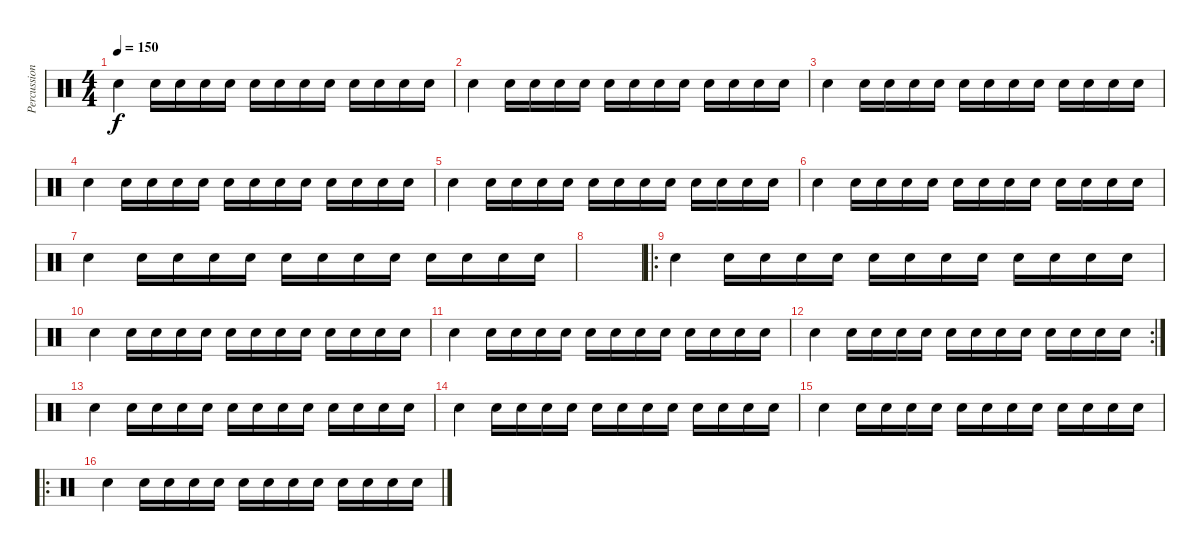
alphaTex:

\track ("Percussion" "Percussion") {instrument percussion}
\staff {score}
\articulation defaults
\ts (4 4)
\tempo 150
\clef neutral
\ks c "Snare (hit) 2".4{dy f} "Snare (hit) 2".16 "Snare (hit) 2".16 "Snare (hit) 2".16 "Snare (hit) 2".16 "Snare (hit) 2".16 "Snare (hit) 2".16 "Snare (hit) 2".16 "Snare (hit) 2".16 "Snare (hit) 2".16 "Snare (hit) 2".16 "Snare (hit) 2".16 "Snare (hit) 2".16
|
"Snare (hit) 2".4 "Snare (hit) 2".16 "Snare (hit) 2".16 "Snare (hit) 2".16 "Snare (hit) 2".16 "Snare (hit) 2".16 "Snare (hit) 2".16 "Snare (hit) 2".16 "Snare (hit) 2".16 "Snare (hit) 2".16 "Snare (hit) 2".16 "Snare (hit) 2".16 "Snare (hit) 2".16 |
"Snare (hit) 2".4 "Snare (hit) 2".16 "Snare (hit) 2".16 "Snare (hit) 2".16 "Snare (hit) 2".16 "Snare (hit) 2".16 "Snare (hit) 2".16 "Snare (hit) 2".16 "Snare (hit) 2".16 "Snare (hit) 2".16 "Snare (hit) 2".16 "Snare (hit) 2".16 "Snare (hit) 2".16 |
"Snare (hit) 2".4 "Snare (hit) 2".16 "Snare (hit) 2".16 "Snare (hit) 2".16 "Snare (hit) 2".16 "Snare (hit) 2".16 "Snare (hit) 2".16 "Snare (hit) 2".16 "Snare (hit) 2".16 "Snare (hit) 2".16 "Snare (hit) 2".16 "Snare (hit) 2".16 "Snare (hit) 2".16 |
"Snare (hit) 2".4 "Snare (hit) 2".16 "Snare (hit) 2".16 "Snare (hit) 2".16 "Snare (hit) 2".16 "Snare (hit) 2".16 "Snare (hit) 2".16 "Snare (hit) 2".16 "Snare (hit) 2".16 "Snare (hit) 2".16 "Snare (hit) 2".16 "Snare (hit) 2".16 "Snare (hit) 2".16 |
"Snare (hit) 2".4 "Snare (hit) 2".16 "Snare (hit) 2".16 "Snare (hit) 2".16 "Snare (hit) 2".16 "Snare (hit) 2".16 "Snare (hit) 2".16 "Snare (hit) 2".16 "Snare (hit) 2".16 "Snare (hit) 2".16 "Snare (hit) 2".16 "Snare (hit) 2".16 "Snare (hit) 2".16 |
"Snare (hit) 2".4 "Snare (hit) 2".16 "Snare (hit) 2".16 "Snare (hit) 2".16 "Snare (hit) 2".16 "Snare (hit) 2".16 "Snare (hit) 2".16 "Snare (hit) 2".16 "Snare (hit) 2".16 "Snare (hit) 2".16 "Snare (hit) 2".16 "Snare (hit) 2".16 "Snare (hit) 2".16 |
|
\ro "Snare (hit) 2".4 "Snare (hit) 2".16 "Snare (hit) 2".16 "Snare (hit) 2".16 "Snare (hit) 2".16 "Snare (hit) 2".16 "Snare (hit) 2".16 "Snare (hit) 2".16 "Snare (hit) 2".16 "Snare (hit) 2".16 "Snare (hit) 2".16 "Snare (hit) 2".16 "Snare (hit) 2".16
|
"Snare (hit) 2".4 "Snare (hit) 2".16 "Snare (hit) 2".16 "Snare (hit) 2".16 "Snare (hit) 2".16 "Snare (hit) 2".16 "Snare (hit) 2".16 "Snare (hit) 2".16 "Snare (hit) 2".16 "Snare (hit) 2".16 "Snare (hit) 2".16 "Snare (hit) 2".16 "Snare (hit) 2".16 |
"Snare (hit) 2".4 "Snare (hit) 2".16 "Snare (hit) 2".16 "Snare (hit) 2".16 "Snare (hit) 2".16 "Snare (hit) 2".16 "Snare (hit) 2".16 "Snare (hit) 2".16 "Snare (hit) 2".16 "Snare (hit) 2".16 "Snare (hit) 2".16 "Snare (hit) 2".16 "Snare (hit) 2".16 |
\rc 2 "Snare (hit) 2".4 "Snare (hit) 2".16 "Snare (hit) 2".16 "Snare (hit) 2".16 "Snare (hit) 2".16 "Snare (hit) 2".16 "Snare (hit) 2".16 "Snare (hit) 2".16 "Snare (hit) 2".16 "Snare (hit) 2".16 "Snare (hit) 2".16 "Snare (hit) 2".16 "Snare (hit) 2".16
|
"Snare (hit) 2".4 "Snare (hit) 2".16 "Snare (hit) 2".16 "Snare (hit) 2".16 "Snare (hit) 2".16 "Snare (hit) 2".16 "Snare (hit) 2".16 "Snare (hit) 2".16 "Snare (hit) 2".16 "Snare (hit) 2".16 "Snare (hit) 2".16 "Snare (hit) 2".16 "Snare (hit) 2".16 |
"Snare (hit) 2".4 "Snare (hit) 2".16 "Snare (hit) 2".16 "Snare (hit) 2".16 "Snare (hit) 2".16 "Snare (hit) 2".16 "Snare (hit) 2".16 "Snare (hit) 2".16 "Snare (hit) 2".16 "Snare (hit) 2".16 "Snare (hit) 2".16 "Snare (hit) 2".16 "Snare (hit) 2".16 |
"Snare (hit) 2".4 "Snare (hit) 2".16 "Snare (hit) 2".16 "Snare (hit) 2".16 "Snare (hit) 2".16 "Snare (hit) 2".16 "Snare (hit) 2".16 "Snare (hit) 2".16 "Snare (hit) 2".16 "Snare (hit) 2".16 "Snare (hit) 2".16 "Snare (hit) 2".16 "Snare (hit) 2".16 |
\ro "Snare (hit) 2".4 "Snare (hit) 2".16 "Snare (hit) 2".16 "Snare (hit) 2".16 "Snare (hit) 2".16 "Snare (hit) 2".16 "Snare (hit) 2".16 "Snare (hit) 2".16 "Snare (hit) 2".16 "Snare (hit) 2".16 "Snare (hit) 2".16 "Snare (hit) 2".16 "Snare (hit) 2".16
